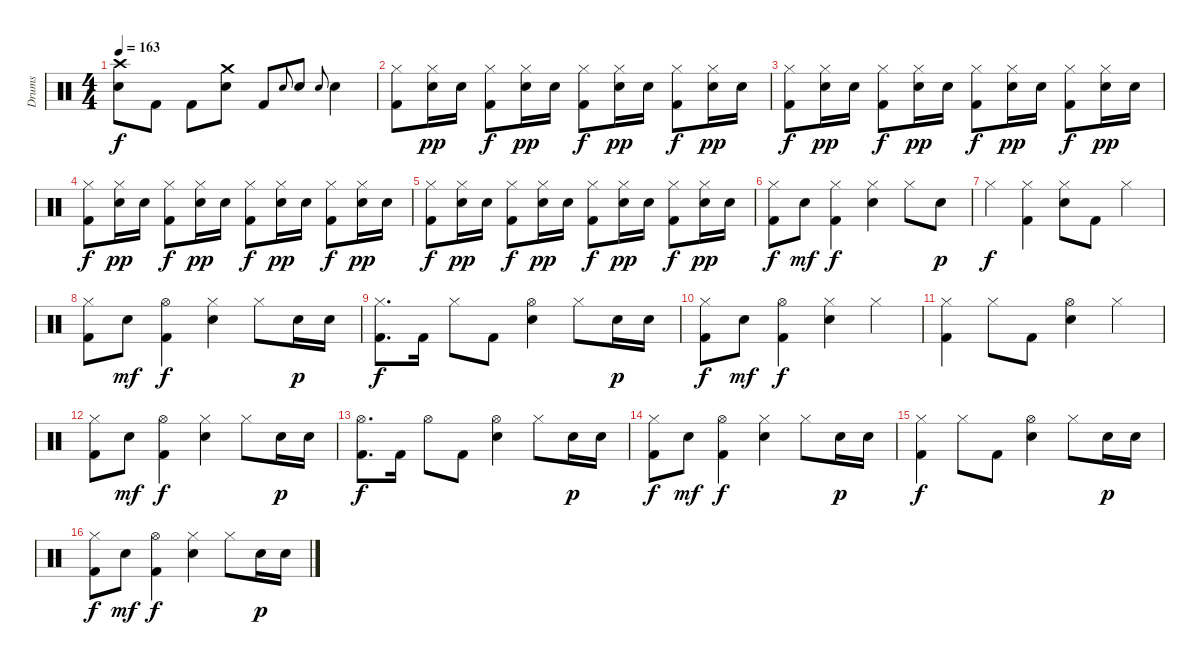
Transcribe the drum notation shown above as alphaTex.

\track ("Drums" "Drums") {instrument percussion}
\staff {score}
\articulation defaults
\ts (4 4)
\tempo 163
\clef neutral
\ks c
("Crash high (hit)" "Electric Snare (hit)").8{dy f} "Kick (hit) 2".8 "Kick (hit) 2".8 ("Crash medium (hit)" "Electric Snare (hit)").8 "Kick (hit) 2".8 "Electric Snare (hit)".8{gr onbeat} "Electric Snare (hit)".8 "Electric Snare (hit)".8{gr onbeat} "Electric Snare (hit)".4 |
("Hi-Hat (closed)" "Kick (hit) 2").8 ("Hi-Hat (closed)" "Electric Snare (hit)").16{dy pp} "Electric Snare (hit)".16 ("Hi-Hat (closed)" "Kick (hit) 2").8{dy f} ("Hi-Hat (closed)" "Electric Snare (hit)").16{dy pp} "Electric Snare (hit)".16 ("Hi-Hat (closed)" "Kick (hit) 2").8{dy f} ("Hi-Hat (closed)" "Electric Snare (hit)").16{dy pp} "Electric Snare (hit)".16 ("Hi-Hat (closed)" "Kick (hit) 2").8{dy f} ("Hi-Hat (closed)" "Electric Snare (hit)").16{dy pp} "Electric Snare (hit)".16 |
("Hi-Hat (closed)" "Kick (hit) 2").8{dy f} ("Hi-Hat (closed)" "Electric Snare (hit)").16{dy pp} "Electric Snare (hit)".16 ("Hi-Hat (closed)" "Kick (hit) 2").8{dy f} ("Hi-Hat (closed)" "Electric Snare (hit)").16{dy pp} "Electric Snare (hit)".16 ("Hi-Hat (closed)" "Kick (hit) 2").8{dy f} ("Hi-Hat (closed)" "Electric Snare (hit)").16{dy pp} "Electric Snare (hit)".16 ("Hi-Hat (closed)" "Kick (hit) 2").8{dy f} ("Hi-Hat (closed)" "Electric Snare (hit)").16{dy pp} "Electric Snare (hit)".16 |
("Hi-Hat (closed)" "Kick (hit) 2").8{dy f} ("Hi-Hat (closed)" "Electric Snare (hit)").16{dy pp} "Electric Snare (hit)".16 ("Hi-Hat (closed)" "Kick (hit) 2").8{dy f} ("Hi-Hat (closed)" "Electric Snare (hit)").16{dy pp} "Electric Snare (hit)".16 ("Hi-Hat (closed)" "Kick (hit) 2").8{dy f} ("Hi-Hat (closed)" "Electric Snare (hit)").16{dy pp} "Electric Snare (hit)".16 ("Hi-Hat (closed)" "Kick (hit) 2").8{dy f} ("Hi-Hat (closed)" "Electric Snare (hit)").16{dy pp} "Electric Snare (hit)".16 |
("Hi-Hat (closed)" "Kick (hit) 2").8{dy f} ("Hi-Hat (closed)" "Electric Snare (hit)").16{dy pp} "Electric Snare (hit)".16 ("Hi-Hat (closed)" "Kick (hit) 2").8{dy f} ("Hi-Hat (closed)" "Electric Snare (hit)").16{dy pp} "Electric Snare (hit)".16 ("Hi-Hat (closed)" "Kick (hit) 2").8{dy f} ("Hi-Hat (closed)" "Electric Snare (hit)").16{dy pp} "Electric Snare (hit)".16 ("Hi-Hat (closed)" "Kick (hit) 2").8{dy f} ("Hi-Hat (closed)" "Electric Snare (hit)").16{dy pp} "Electric Snare (hit)".16 |
("Hi-Hat (closed)" "Kick (hit) 2").8{dy f} "Electric Snare (hit)".8{dy mf} ("Hi-Hat (closed)" "Kick (hit) 2").4{dy f} ("Hi-Hat (closed)" "Electric Snare (hit)").4 "Hi-Hat (closed)".8 "Electric Snare (hit)".8{dy p} |
"Hi-Hat (closed)".4{dy f} ("Hi-Hat (closed)" "Kick (hit) 2").4 ("Hi-Hat (closed)" "Electric Snare (hit)").8 "Kick (hit) 2".8 "Hi-Hat (closed)".4 |
("Hi-Hat (closed)" "Kick (hit) 2").8 "Electric Snare (hit)".8{dy mf} ("Hi-Hat (open)" "Kick (hit) 2").4{dy f} ("Hi-Hat (closed)" "Electric Snare (hit)").4 "Hi-Hat (closed)".8 "Electric Snare (hit)".16{dy p} "Electric Snare (hit)".16 |
("Hi-Hat (closed)" "Kick (hit) 2").8{d dy f} "Kick (hit) 2".16 "Hi-Hat (closed)".8 "Kick (hit) 2".8 ("Hi-Hat (open)" "Electric Snare (hit)").4 "Hi-Hat (closed)".8 "Electric Snare (hit)".16{dy p} "Electric Snare (hit)".16 |
("Hi-Hat (closed)" "Kick (hit) 2").8{dy f} "Electric Snare (hit)".8{dy mf} ("Hi-Hat (open)" "Kick (hit) 2").4{dy f} ("Hi-Hat (closed)" "Electric Snare (hit)").4 "Hi-Hat (closed)".4 |
("Hi-Hat (closed)" "Kick (hit) 2").4 "Hi-Hat (closed)".8 "Kick (hit) 2".8 ("Hi-Hat (open)" "Electric Snare (hit)").4 "Hi-Hat (closed)".4 |
("Hi-Hat (closed)" "Kick (hit) 2").8 "Electric Snare (hit)".8{dy mf} ("Hi-Hat (open)" "Kick (hit) 2").4{dy f} ("Hi-Hat (closed)" "Electric Snare (hit)").4 "Hi-Hat (closed)".8 "Electric Snare (hit)".16{dy p} "Electric Snare (hit)".16 |
("Hi-Hat (open)" "Kick (hit) 2").8{d dy f} "Kick (hit) 2".16 "Hi-Hat (open)".8 "Kick (hit) 2".8 ("Hi-Hat (open)" "Electric Snare (hit)").4 "Hi-Hat (closed)".8 "Electric Snare (hit)".16{dy p} "Electric Snare (hit)".16 |
("Hi-Hat (closed)" "Kick (hit) 2").8{dy f} "Electric Snare (hit)".8{dy mf} ("Hi-Hat (open)" "Kick (hit) 2").4{dy f} ("Hi-Hat (closed)" "Electric Snare (hit)").4 "Hi-Hat (closed)".8 "Electric Snare (hit)".16{dy p} "Electric Snare (hit)".16 |
("Hi-Hat (closed)" "Kick (hit) 2").4{dy f} "Hi-Hat (closed)".8 "Kick (hit) 2".8 ("Hi-Hat (open)" "Electric Snare (hit)").4 "Hi-Hat (closed)".8 "Electric Snare (hit)".16{dy p} "Electric Snare (hit)".16 |
("Hi-Hat (closed)" "Kick (hit) 2").8{dy f} "Electric Snare (hit)".8{dy mf} ("Hi-Hat (open)" "Kick (hit) 2").4{dy f} ("Hi-Hat (closed)" "Electric Snare (hit)").4 "Hi-Hat (closed)".8 "Electric Snare (hit)".16{dy p} "Electric Snare (hit)".16
